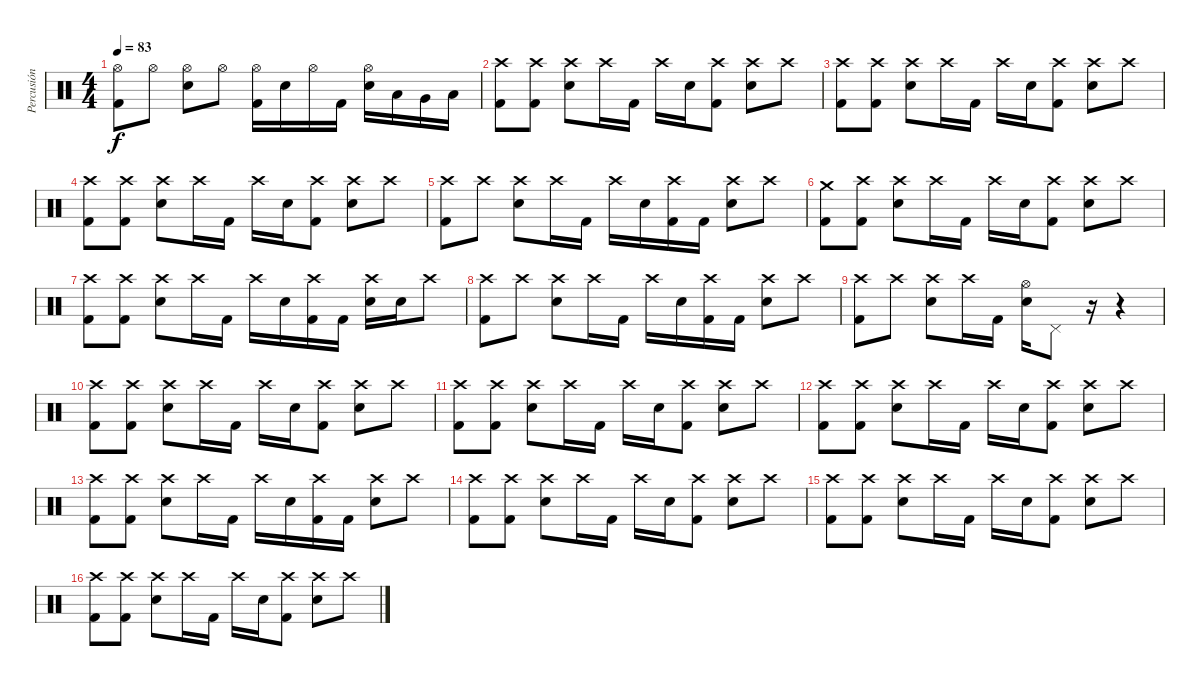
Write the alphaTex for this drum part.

\track ("Percusión" "Percusión") {instrument percussion}
\staff {score}
\articulation defaults
\ts (4 4)
\tempo 83
\clef neutral
\ks c
("Hi-Hat (open)" "Kick (hit) 2").8{dy f} "Hi-Hat (open)".8 ("Hi-Hat (open)" "Snare (hit) 2").8 "Hi-Hat (open)".8 ("Hi-Hat (open)" "Kick (hit) 2").16 "Snare (hit) 2".16 "Hi-Hat (open)".16 "Kick (hit) 2".16 ("Hi-Hat (open)" "Snare (hit) 2").16 "Low Tom (hit)".16 "Very Low Tom (hit)".16 "Low Floor Tom (hit)".16 |
("Crash high (hit)" "Kick (hit) 2").8 ("Crash high (hit)" "Kick (hit) 2").8 ("Crash high (hit)" "Snare (hit) 2").8 "Crash high (hit)".16 "Kick (hit) 2".16 "Crash high (hit)".16 "Snare (hit) 2".16 ("Crash high (hit)" "Kick (hit) 2").8 ("Crash high (hit)" "Snare (hit) 2").8 "Crash high (hit)".8 |
("Crash high (hit)" "Kick (hit) 2").8 ("Crash high (hit)" "Kick (hit) 2").8 ("Crash high (hit)" "Snare (hit) 2").8 "Crash high (hit)".16 "Kick (hit) 2".16 "Crash high (hit)".16 "Snare (hit) 2".16 ("Crash high (hit)" "Kick (hit) 2").8 ("Crash high (hit)" "Snare (hit) 2").8 "Crash high (hit)".8 |
("Crash high (hit)" "Kick (hit) 2").8 ("Crash high (hit)" "Kick (hit) 2").8 ("Crash high (hit)" "Snare (hit) 2").8 "Crash high (hit)".16 "Kick (hit) 2".16 "Crash high (hit)".16 "Snare (hit) 2".16 ("Crash high (hit)" "Kick (hit) 2").8 ("Crash high (hit)" "Snare (hit) 2").8 "Crash high (hit)".8 |
("Crash high (hit)" "Kick (hit) 2").8 "Crash high (hit)".8 ("Crash high (hit)" "Snare (hit) 2").8 "Crash high (hit)".16 "Kick (hit) 2".16 "Crash high (hit)".16 "Snare (hit) 2".16 ("Crash high (hit)" "Kick (hit) 2").16 "Kick (hit) 2".16 ("Crash high (hit)" "Snare (hit) 2").8 "Crash high (hit)".8 |
("Crash medium (hit)" "Kick (hit) 2").8 ("Crash high (hit)" "Kick (hit) 2").8 ("Crash high (hit)" "Snare (hit) 2").8 "Crash high (hit)".16 "Kick (hit) 2".16 "Crash high (hit)".16 "Snare (hit) 2".16 ("Crash high (hit)" "Kick (hit) 2").8 ("Crash high (hit)" "Snare (hit) 2").8 "Crash high (hit)".8 |
("Crash high (hit)" "Kick (hit) 2").8 ("Crash high (hit)" "Kick (hit) 2").8 ("Crash high (hit)" "Snare (hit) 2").8 "Crash high (hit)".16 "Kick (hit) 2".16 "Crash high (hit)".16 "Snare (hit) 2".16 ("Crash high (hit)" "Kick (hit) 2").16 "Kick (hit) 2".16 ("Crash high (hit)" "Snare (hit) 2").16 "Snare (hit) 2".16 "Crash high (hit)".8 |
("Crash high (hit)" "Kick (hit) 2").8 "Crash high (hit)".8 ("Crash high (hit)" "Snare (hit) 2").8 "Crash high (hit)".16 "Kick (hit) 2".16 "Crash high (hit)".16 "Snare (hit) 2".16 ("Crash high (hit)" "Kick (hit) 2").16 "Kick (hit) 2".16 ("Crash high (hit)" "Snare (hit) 2").8 "Crash high (hit)".8 |
("Crash high (hit)" "Kick (hit) 2").8 "Crash high (hit)".8 ("Crash high (hit)" "Snare (hit) 2").8 "Crash high (hit)".16 "Kick (hit) 2".16 ("Hi-Hat (open)" "Snare (hit) 2").16 "Pedal Hi-Hat (hit)".8 r.16 r.4 |
("Crash high (hit)" "Kick (hit) 2").8 ("Crash high (hit)" "Kick (hit) 2").8 ("Crash high (hit)" "Snare (hit) 2").8 "Crash high (hit)".16 "Kick (hit) 2".16 "Crash high (hit)".16 "Snare (hit) 2".16 ("Crash high (hit)" "Kick (hit) 2").8 ("Crash high (hit)" "Snare (hit) 2").8 "Crash high (hit)".8 |
("Crash high (hit)" "Kick (hit) 2").8 ("Crash high (hit)" "Kick (hit) 2").8 ("Crash high (hit)" "Snare (hit) 2").8 "Crash high (hit)".16 "Kick (hit) 2".16 "Crash high (hit)".16 "Snare (hit) 2".16 ("Crash high (hit)" "Kick (hit) 2").8 ("Crash high (hit)" "Snare (hit) 2").8 "Crash high (hit)".8 |
("Crash high (hit)" "Kick (hit) 2").8 ("Crash high (hit)" "Kick (hit) 2").8 ("Crash high (hit)" "Snare (hit) 2").8 "Crash high (hit)".16 "Kick (hit) 2".16 "Crash high (hit)".16 "Snare (hit) 2".16 ("Crash high (hit)" "Kick (hit) 2").8 ("Crash high (hit)" "Snare (hit) 2").8 "Crash high (hit)".8 |
("Crash high (hit)" "Kick (hit) 2").8 ("Crash high (hit)" "Kick (hit) 2").8 ("Crash high (hit)" "Snare (hit) 2").8 "Crash high (hit)".16 "Kick (hit) 2".16 "Crash high (hit)".16 "Snare (hit) 2".16 ("Crash high (hit)" "Kick (hit) 2").16 "Kick (hit) 2".16 ("Crash high (hit)" "Snare (hit) 2").8 "Crash high (hit)".8 |
("Crash high (hit)" "Kick (hit) 2").8 ("Crash high (hit)" "Kick (hit) 2").8 ("Crash high (hit)" "Snare (hit) 2").8 "Crash high (hit)".16 "Kick (hit) 2".16 "Crash high (hit)".16 "Snare (hit) 2".16 ("Crash high (hit)" "Kick (hit) 2").8 ("Crash high (hit)" "Snare (hit) 2").8 "Crash high (hit)".8 |
("Crash high (hit)" "Kick (hit) 2").8 ("Crash high (hit)" "Kick (hit) 2").8 ("Crash high (hit)" "Snare (hit) 2").8 "Crash high (hit)".16 "Kick (hit) 2".16 "Crash high (hit)".16 "Snare (hit) 2".16 ("Crash high (hit)" "Kick (hit) 2").8 ("Crash high (hit)" "Snare (hit) 2").8 "Crash high (hit)".8 |
("Crash high (hit)" "Kick (hit) 2").8 ("Crash high (hit)" "Kick (hit) 2").8 ("Crash high (hit)" "Snare (hit) 2").8 "Crash high (hit)".16 "Kick (hit) 2".16 "Crash high (hit)".16 "Snare (hit) 2".16 ("Crash high (hit)" "Kick (hit) 2").8 ("Crash high (hit)" "Snare (hit) 2").8 "Crash high (hit)".8
